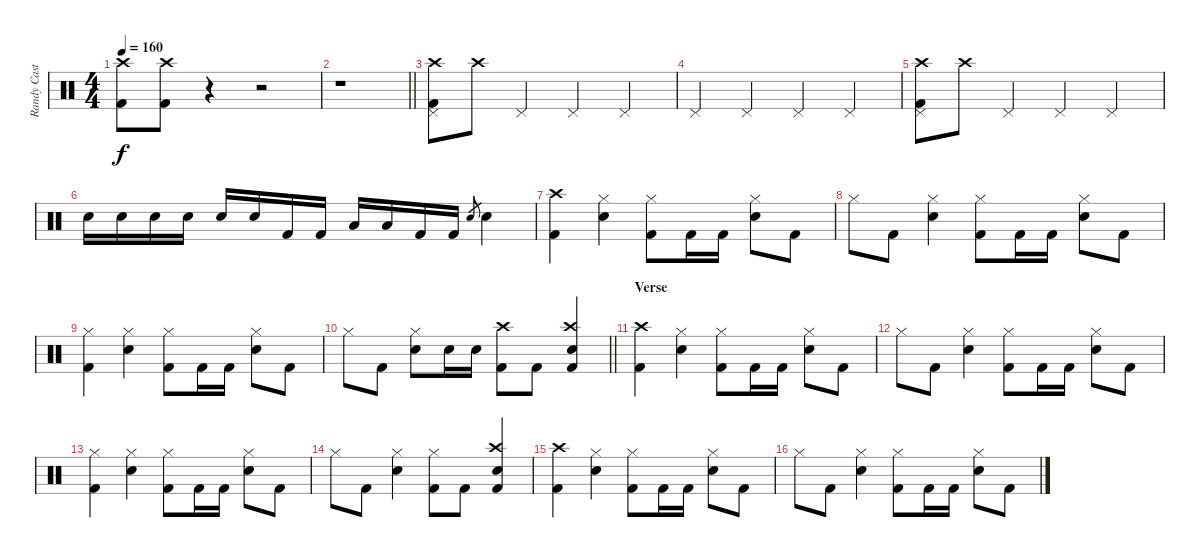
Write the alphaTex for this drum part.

\track ("Randy Castillo" "Randy Cast") {instrument percussion}
\staff {score}
\articulation defaults
\ts (4 4)
\tempo 160
\clef neutral
\ks aminor
("Kick (hit) 2" "Crash high (hit)").8{dy f} ("Kick (hit) 2" "Crash high (hit)").8 r.4 r.2 |
\barLineRight lightlight
r.1 |
("Pedal Hi-Hat (hit)" "Kick (hit) 2" "Crash high (hit)").8 "Crash high (hit)".8 "Pedal Hi-Hat (hit)".4 "Pedal Hi-Hat (hit)".4 "Pedal Hi-Hat (hit)".4 |
"Pedal Hi-Hat (hit)".4 "Pedal Hi-Hat (hit)".4 "Pedal Hi-Hat (hit)".4 "Pedal Hi-Hat (hit)".4 |
("Pedal Hi-Hat (hit)" "Kick (hit) 2" "Crash high (hit)").8 "Crash high (hit)".8 "Pedal Hi-Hat (hit)".4 "Pedal Hi-Hat (hit)".4 "Pedal Hi-Hat (hit)".4 |
"Snare (hit) 2".16 "Snare (hit) 2".16 "Snare (hit) 2".16 "Snare (hit) 2".16 "Snare (hit) 2".16 "Snare (hit) 2".16 "Kick (hit) 2".16 "Kick (hit) 2".16 "Low Tom (hit)".16 "Low Tom (hit)".16 "Kick (hit) 2".16 "Kick (hit) 2".16 "Snare (hit) 2".8{gr} "Snare (hit) 2".4 |
("Kick (hit) 2" "Crash high (hit)").4 ("Hi-Hat (closed)" "Snare (hit) 2").4 ("Hi-Hat (closed)" "Kick (hit) 2").8 "Kick (hit) 2".16 "Kick (hit) 2".16 ("Hi-Hat (closed)" "Snare (hit) 2").8 "Kick (hit) 2".8 |
"Hi-Hat (closed)".8 "Kick (hit) 2".8 ("Hi-Hat (closed)" "Snare (hit) 2").4 ("Hi-Hat (closed)" "Kick (hit) 2").8 "Kick (hit) 2".16 "Kick (hit) 2".16 ("Hi-Hat (closed)" "Snare (hit) 2").8 "Kick (hit) 2".8 |
("Hi-Hat (closed)" "Kick (hit) 2").4 ("Hi-Hat (closed)" "Snare (hit) 2").4 ("Hi-Hat (closed)" "Kick (hit) 2").8 "Kick (hit) 2".16 "Kick (hit) 2".16 ("Hi-Hat (closed)" "Snare (hit) 2").8 "Kick (hit) 2".8 |
\barLineRight lightlight "Hi-Hat (closed)".8 "Kick (hit) 2".8
("Hi-Hat (closed)" "Snare (hit) 2").8 "Snare (hit) 2".16 "Snare (hit) 2".16 ("Kick (hit) 2" "Crash high (hit)").8 "Kick (hit) 2".8 ("Snare (hit) 2" "Kick (hit) 2" "Crash high (hit)").4 |
\section ("" "Verse")
("Kick (hit) 2" "Crash high (hit)").4 ("Hi-Hat (closed)" "Snare (hit) 2").4 ("Hi-Hat (closed)" "Kick (hit) 2").8 "Kick (hit) 2".16 "Kick (hit) 2".16 ("Hi-Hat (closed)" "Snare (hit) 2").8 "Kick (hit) 2".8 |
"Hi-Hat (closed)".8 "Kick (hit) 2".8 ("Hi-Hat (closed)" "Snare (hit) 2").4 ("Hi-Hat (closed)" "Kick (hit) 2").8 "Kick (hit) 2".16 "Kick (hit) 2".16 ("Hi-Hat (closed)" "Snare (hit) 2").8 "Kick (hit) 2".8 |
("Hi-Hat (closed)" "Kick (hit) 2").4 ("Hi-Hat (closed)" "Snare (hit) 2").4 ("Hi-Hat (closed)" "Kick (hit) 2").8 "Kick (hit) 2".16 "Kick (hit) 2".16 ("Hi-Hat (closed)" "Snare (hit) 2").8 "Kick (hit) 2".8 |
"Hi-Hat (closed)".8 "Kick (hit) 2".8 ("Hi-Hat (closed)" "Snare (hit) 2").4 ("Hi-Hat (closed)" "Kick (hit) 2").8 "Kick (hit) 2".8 ("Snare (hit) 2" "Kick (hit) 2" "Crash high (hit)").4 |
("Kick (hit) 2" "Crash high (hit)").4 ("Hi-Hat (closed)" "Snare (hit) 2").4 ("Hi-Hat (closed)" "Kick (hit) 2").8 "Kick (hit) 2".16 "Kick (hit) 2".16 ("Hi-Hat (closed)" "Snare (hit) 2").8 "Kick (hit) 2".8 |
"Hi-Hat (closed)".8 "Kick (hit) 2".8 ("Hi-Hat (closed)" "Snare (hit) 2").4 ("Hi-Hat (closed)" "Kick (hit) 2").8 "Kick (hit) 2".16 "Kick (hit) 2".16 ("Hi-Hat (closed)" "Snare (hit) 2").8 "Kick (hit) 2".8
